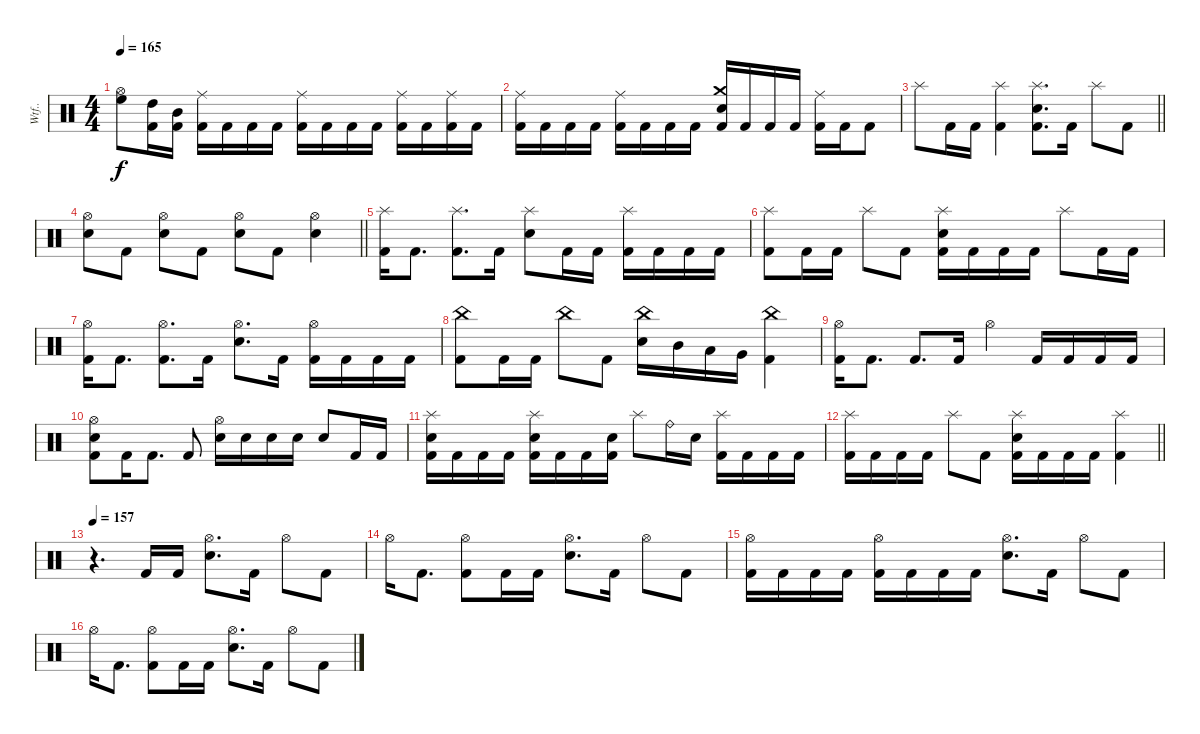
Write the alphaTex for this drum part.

\track ("Wtf.." "Wtf..") {instrument percussion}
\staff {score}
\articulation defaults
\ts (4 4)
\section ("" "")
\tempo 165
\clef neutral
\ks c
("Hi-Hat (open)" "High Floor Tom (hit)").8{dy f} ("High Tom (hit)" "Kick (hit) 2").16 ("Mid Tom (hit)" "Kick (hit) 2").16 ("Ride (middle)" "Kick (hit) 2").16 "Kick (hit) 2".16 "Kick (hit) 2".16 "Kick (hit) 2".16 ("Ride (middle)" "Kick (hit) 2").16 "Kick (hit) 2".16 "Kick (hit) 2".16 "Kick (hit) 2".16 ("Ride (middle)" "Kick (hit) 2").16 "Kick (hit) 2".16 ("Ride (middle)" "Kick (hit) 2").16 "Kick (hit) 2".16 |
("Ride (middle)" "Kick (hit) 2").16 "Kick (hit) 2".16 "Kick (hit) 2".16 "Kick (hit) 2".16 ("Ride (middle)" "Kick (hit) 2").16 "Kick (hit) 2".16 "Kick (hit) 2".16 "Kick (hit) 2".16 ("Crash medium (hit)" "Electric Snare (hit)" "Kick (hit) 2").16 "Kick (hit) 2".16 "Kick (hit) 2".16 "Kick (hit) 2".16 ("Ride (middle)" "Kick (hit) 2").16 "Kick (hit) 2".16 "Kick (hit) 2".8 |
\barLineRight lightlight "Splash (hit)".8 "Kick (hit) 2".16 "Kick (hit) 2".16
("Splash (hit)" "Kick (hit) 2").4 ("Splash (hit)" "Electric Snare (hit)" "Kick (hit) 2").8{d} "Kick (hit) 2".16 "Splash (hit)".8 "Kick (hit) 2".8 |
\section ("" "")
\barLineRight lightlight
("Hi-Hat (open)" "Electric Snare (hit)").8 "Kick (hit) 2".8 ("Hi-Hat (open)" "Electric Snare (hit)").8 "Kick (hit) 2".8 ("Hi-Hat (open)" "Electric Snare (hit)").8 "Kick (hit) 2".8 ("Hi-Hat (open)" "Electric Snare (hit)").4 |
\section ("" "")
("Splash (hit)" "Kick (hit) 2").16 "Kick (hit) 2".8{d} ("Splash (hit)" "Kick (hit) 2").8{d} "Kick (hit) 2".16 ("Splash (hit)" "Electric Snare (hit)").8 "Kick (hit) 2".16 "Kick (hit) 2".16 ("Splash (hit)" "Kick (hit) 2").16 "Kick (hit) 2".16 "Kick (hit) 2".16 "Kick (hit) 2".16 |
("Splash (hit)" "Kick (hit) 2").8 "Kick (hit) 2".16 "Kick (hit) 2".16 "Splash (hit)".8 "Kick (hit) 2".8 ("Splash (hit)" "Electric Snare (hit)" "Kick (hit) 2").16 "Kick (hit) 2".16 "Kick (hit) 2".16 "Kick (hit) 2".16 "Splash (hit)".8 "Kick (hit) 2".16 "Kick (hit) 2".16 |
("Hi-Hat (open)" "Kick (hit) 2").16 "Kick (hit) 2".8{d} ("Hi-Hat (open)" "Kick (hit) 2").8{d} "Kick (hit) 2".16 ("Hi-Hat (open)" "Electric Snare (hit)").8{d} "Kick (hit) 2".16 ("Hi-Hat (open)" "Kick (hit) 2").16 "Kick (hit) 2".16 "Kick (hit) 2".16 "Kick (hit) 2".16 |
("China (hit)" "Kick (hit) 2").8 "Kick (hit) 2".16 "Kick (hit) 2".16 "China (hit)".8 "Kick (hit) 2".8 ("China (hit)" "Electric Snare (hit)").16 "Mid Tom (hit)".16 "Low Tom (hit)".16 "Very Low Tom (hit)".16 ("China (hit)" "Kick (hit) 2").4 |
("Hi-Hat (open)" "Kick (hit) 2").16 "Kick (hit) 2".8{d} "Kick (hit) 2".8{d} "Kick (hit) 2".16 "Hi-Hat (open)".4 "Kick (hit) 2".16 "Kick (hit) 2".16 "Kick (hit) 2".16 "Kick (hit) 2".16 |
("Hi-Hat (open)" "Electric Snare (hit)" "Kick (hit) 2").8 "Kick (hit) 2".16 "Kick (hit) 2".8{d} "Kick (hit) 2".8 ("Hi-Hat (open)" "Electric Snare (hit)").16 "Electric Snare (hit)".16 "Electric Snare (hit)".16 "Electric Snare (hit)".16 "Electric Snare (hit)".8 "Kick (hit) 2".16 "Kick (hit) 2".16 |
("Splash (hit)" "Electric Snare (hit)" "Kick (hit) 2").16 "Kick (hit) 2".16 "Kick (hit) 2".16 "Kick (hit) 2".16 ("Splash (hit)" "Electric Snare (hit)" "Kick (hit) 2").16 "Kick (hit) 2".16 "Kick (hit) 2".16 ("Electric Snare (hit)" "Kick (hit) 2").16 "Splash (hit)".8 "Ride (bell)".16 "Electric Snare (hit)".16 ("Splash (hit)" "Kick (hit) 2").16 "Kick (hit) 2".16 "Kick (hit) 2".16 "Kick (hit) 2".16 |
\barLineRight lightlight
("Splash (hit)" "Kick (hit) 2").16 "Kick (hit) 2".16 "Kick (hit) 2".16 "Kick (hit) 2".16 "Splash (hit)".8 "Kick (hit) 2".8 ("Splash (hit)" "Electric Snare (hit)" "Kick (hit) 2").16 "Kick (hit) 2".16 "Kick (hit) 2".16 "Kick (hit) 2".16 ("Splash (hit)" "Kick (hit) 2").4 |
\section ("" "")
\tempo 157
r.4{d} "Kick (hit) 2".16 "Kick (hit) 2".16 ("Hi-Hat (open)" "Electric Snare (hit)").8{d} "Kick (hit) 2".16 "Hi-Hat (open)".8 "Kick (hit) 2".8 |
"Hi-Hat (open)".16 "Kick (hit) 2".8{d} ("Hi-Hat (open)" "Kick (hit) 2").8 "Kick (hit) 2".16 "Kick (hit) 2".16 ("Hi-Hat (open)" "Electric Snare (hit)").8{d} "Kick (hit) 2".16 "Hi-Hat (open)".8 "Kick (hit) 2".8 |
("Hi-Hat (open)" "Kick (hit) 2").16 "Kick (hit) 2".16 "Kick (hit) 2".16 "Kick (hit) 2".16 ("Hi-Hat (open)" "Kick (hit) 2").16 "Kick (hit) 2".16 "Kick (hit) 2".16 "Kick (hit) 2".16 ("Hi-Hat (open)" "Electric Snare (hit)").8{d} "Kick (hit) 2".16 "Hi-Hat (open)".8 "Kick (hit) 2".8 |
"Hi-Hat (open)".16 "Kick (hit) 2".8{d} ("Hi-Hat (open)" "Kick (hit) 2").8 "Kick (hit) 2".16 "Kick (hit) 2".16 ("Hi-Hat (open)" "Electric Snare (hit)").8{d} "Kick (hit) 2".16 "Hi-Hat (open)".8 "Kick (hit) 2".8
